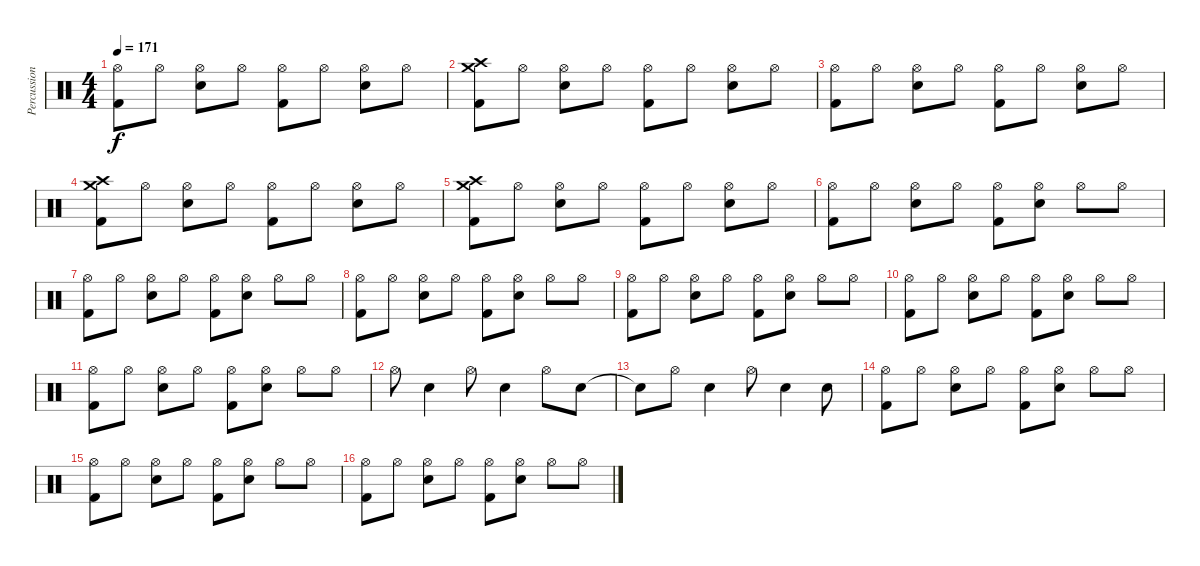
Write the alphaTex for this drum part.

\track ("Percussion" "Percussion") {instrument percussion}
\staff {score}
\articulation defaults
\ts (4 4)
\tempo 171
\clef neutral
\ks c
("Hi-Hat (open)" "Kick (hit) 2").8{dy f} "Hi-Hat (open)".8 ("Hi-Hat (open)" "Snare (hit) 2").8 "Hi-Hat (open)".8 ("Hi-Hat (open)" "Kick (hit) 2").8 "Hi-Hat (open)".8 ("Hi-Hat (open)" "Snare (hit) 2").8 "Hi-Hat (open)".8 |
("Crash high (hit)" "Crash medium (hit)" "Kick (hit) 2").8 "Hi-Hat (open)".8 ("Hi-Hat (open)" "Snare (hit) 2").8 "Hi-Hat (open)".8 ("Hi-Hat (open)" "Kick (hit) 2").8 "Hi-Hat (open)".8 ("Hi-Hat (open)" "Snare (hit) 2").8 "Hi-Hat (open)".8 |
("Hi-Hat (open)" "Kick (hit) 2").8 "Hi-Hat (open)".8 ("Hi-Hat (open)" "Snare (hit) 2").8 "Hi-Hat (open)".8 ("Hi-Hat (open)" "Kick (hit) 2").8 "Hi-Hat (open)".8 ("Hi-Hat (open)" "Snare (hit) 2").8 "Hi-Hat (open)".8 |
("Crash high (hit)" "Crash medium (hit)" "Kick (hit) 2").8 "Hi-Hat (open)".8 ("Hi-Hat (open)" "Snare (hit) 2").8 "Hi-Hat (open)".8 ("Hi-Hat (open)" "Kick (hit) 2").8 "Hi-Hat (open)".8 ("Hi-Hat (open)" "Snare (hit) 2").8 "Hi-Hat (open)".8 |
("Crash high (hit)" "Crash medium (hit)" "Kick (hit) 2").8 "Hi-Hat (open)".8 ("Hi-Hat (open)" "Snare (hit) 2").8 "Hi-Hat (open)".8 ("Hi-Hat (open)" "Kick (hit) 2").8 "Hi-Hat (open)".8 ("Hi-Hat (open)" "Snare (hit) 2").8 "Hi-Hat (open)".8 |
("Hi-Hat (open)" "Kick (hit) 2").8 "Hi-Hat (open)".8 ("Hi-Hat (open)" "Snare (hit) 2").8 "Hi-Hat (open)".8 ("Hi-Hat (open)" "Kick (hit) 2").8 ("Hi-Hat (open)" "Snare (hit) 2").8 "Hi-Hat (open)".8 "Hi-Hat (open)".8 |
("Hi-Hat (open)" "Kick (hit) 2").8 "Hi-Hat (open)".8 ("Hi-Hat (open)" "Snare (hit) 2").8 "Hi-Hat (open)".8 ("Hi-Hat (open)" "Kick (hit) 2").8 ("Hi-Hat (open)" "Snare (hit) 2").8 "Hi-Hat (open)".8 "Hi-Hat (open)".8 |
("Hi-Hat (open)" "Kick (hit) 2").8 "Hi-Hat (open)".8 ("Hi-Hat (open)" "Snare (hit) 2").8 "Hi-Hat (open)".8 ("Hi-Hat (open)" "Kick (hit) 2").8 ("Hi-Hat (open)" "Snare (hit) 2").8 "Hi-Hat (open)".8 "Hi-Hat (open)".8 |
("Hi-Hat (open)" "Kick (hit) 2").8 "Hi-Hat (open)".8 ("Hi-Hat (open)" "Snare (hit) 2").8 "Hi-Hat (open)".8 ("Hi-Hat (open)" "Kick (hit) 2").8 ("Hi-Hat (open)" "Snare (hit) 2").8 "Hi-Hat (open)".8 "Hi-Hat (open)".8 |
("Hi-Hat (open)" "Kick (hit) 2").8 "Hi-Hat (open)".8 ("Hi-Hat (open)" "Snare (hit) 2").8 "Hi-Hat (open)".8 ("Hi-Hat (open)" "Kick (hit) 2").8 ("Hi-Hat (open)" "Snare (hit) 2").8 "Hi-Hat (open)".8 "Hi-Hat (open)".8 |
("Hi-Hat (open)" "Kick (hit) 2").8 "Hi-Hat (open)".8 ("Hi-Hat (open)" "Snare (hit) 2").8 "Hi-Hat (open)".8 ("Hi-Hat (open)" "Kick (hit) 2").8 ("Hi-Hat (open)" "Snare (hit) 2").8 "Hi-Hat (open)".8 "Hi-Hat (open)".8 |
"Hi-Hat (open)".8 "Snare (hit) 2".4 "Hi-Hat (open)".8 "Snare (hit) 2".4 "Hi-Hat (open)".8 "Snare (hit) 2".8 |
"Snare (hit)"{t}.8 "Hi-Hat (open)".8 "Snare (hit) 2".4 "Hi-Hat (open)".8 "Snare (hit) 2".4 "Snare (hit) 2".8 |
("Hi-Hat (open)" "Kick (hit) 2").8 "Hi-Hat (open)".8 ("Hi-Hat (open)" "Snare (hit) 2").8 "Hi-Hat (open)".8 ("Hi-Hat (open)" "Kick (hit) 2").8 ("Hi-Hat (open)" "Snare (hit) 2").8 "Hi-Hat (open)".8 "Hi-Hat (open)".8 |
("Hi-Hat (open)" "Kick (hit) 2").8 "Hi-Hat (open)".8 ("Hi-Hat (open)" "Snare (hit) 2").8 "Hi-Hat (open)".8 ("Hi-Hat (open)" "Kick (hit) 2").8 ("Hi-Hat (open)" "Snare (hit) 2").8 "Hi-Hat (open)".8 "Hi-Hat (open)".8 |
("Hi-Hat (open)" "Kick (hit) 2").8 "Hi-Hat (open)".8 ("Hi-Hat (open)" "Snare (hit) 2").8 "Hi-Hat (open)".8 ("Hi-Hat (open)" "Kick (hit) 2").8 ("Hi-Hat (open)" "Snare (hit) 2").8 "Hi-Hat (open)".8 "Hi-Hat (open)".8
